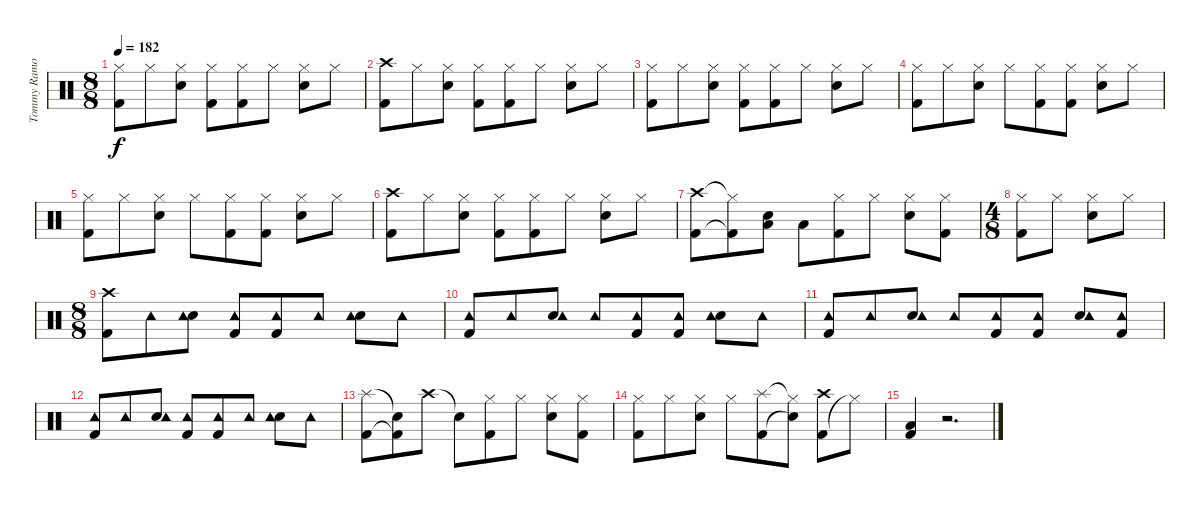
\track ("Tommy Ramone - Drums" "Tommy Ramo") {instrument percussion}
\staff {score}
\articulation defaults
\ts (8 8)
\tempo 182
\clef neutral
\ks c
("Kick (hit) 2" "Hi-Hat (closed)").8{dy f} "Hi-Hat (closed)".8 ("Snare (hit) 2" "Hi-Hat (closed)").8 ("Kick (hit) 2" "Hi-Hat (closed)").8 ("Kick (hit) 2" "Hi-Hat (closed)").8 "Hi-Hat (closed)".8 ("Snare (hit) 2" "Hi-Hat (closed)").8 "Hi-Hat (closed)".8 |
("Kick (hit) 2" "Crash high (hit)").8 "Hi-Hat (closed)".8 ("Snare (hit) 2" "Hi-Hat (closed)").8 ("Kick (hit) 2" "Hi-Hat (closed)").8 ("Kick (hit) 2" "Hi-Hat (closed)").8 "Hi-Hat (closed)".8 ("Snare (hit) 2" "Hi-Hat (closed)").8 "Hi-Hat (closed)".8 |
("Kick (hit) 2" "Hi-Hat (closed)").8 "Hi-Hat (closed)".8 ("Snare (hit) 2" "Hi-Hat (closed)").8 ("Kick (hit) 2" "Hi-Hat (closed)").8 ("Kick (hit) 2" "Hi-Hat (closed)").8 "Hi-Hat (closed)".8 ("Snare (hit) 2" "Hi-Hat (closed)").8 "Hi-Hat (closed)".8 |
("Kick (hit) 2" "Hi-Hat (closed)").8 "Hi-Hat (closed)".8 ("Snare (hit) 2" "Hi-Hat (closed)").8 "Hi-Hat (closed)".8 ("Kick (hit) 2" "Hi-Hat (closed)").8 ("Kick (hit) 2" "Hi-Hat (closed)").8 ("Snare (hit) 2" "Hi-Hat (closed)").8 "Hi-Hat (closed)".8 |
("Kick (hit) 2" "Hi-Hat (closed)").8 "Hi-Hat (closed)".8 ("Snare (hit) 2" "Hi-Hat (closed)").8 "Hi-Hat (closed)".8 ("Kick (hit) 2" "Hi-Hat (closed)").8 ("Kick (hit) 2" "Hi-Hat (closed)").8 ("Snare (hit) 2" "Hi-Hat (closed)").8 "Hi-Hat (closed)".8 |
("Kick (hit) 2" "Crash high (hit)").8 "Hi-Hat (closed)".8 ("Snare (hit) 2" "Hi-Hat (closed)").8 ("Kick (hit) 2" "Hi-Hat (closed)").8 ("Kick (hit) 2" "Hi-Hat (closed)").8 "Hi-Hat (closed)".8 ("Snare (hit) 2" "Hi-Hat (closed)").8 "Hi-Hat (closed)".8 |
("Kick (hit) 2" "Crash high (hit)").8 ("Kick (hit) 2"{t} "Hi-Hat (closed)"{t}).8 ("Snare (hit) 2" "Low Floor Tom (hit)").8 "Low Floor Tom (hit)".8 ("Kick (hit) 2" "Hi-Hat (closed)").8 "Hi-Hat (closed)".8 ("Snare (hit) 2" "Hi-Hat (closed)").8 ("Kick (hit) 2" "Hi-Hat (closed)").8 |
\ts (4 8)
("Kick (hit) 2" "Hi-Hat (closed)").8 "Hi-Hat (closed)".8 ("Snare (hit) 2" "Hi-Hat (closed)").8 "Hi-Hat (closed)".8 |
\ts (8 8)
("Kick (hit) 2" "Crash high (hit)").8 "Tambourine (hit)".8 ("Snare (hit) 2" "Tambourine (hit)").8 ("Kick (hit) 2" "Tambourine (hit)").8 ("Kick (hit) 2" "Tambourine (hit)").8 "Tambourine (hit)".8 ("Snare (hit) 2" "Tambourine (hit)").8 "Tambourine (hit)".8 |
("Kick (hit) 2" "Tambourine (hit)").8 "Tambourine (hit)".8 ("Snare (hit) 2" "Tambourine (hit)").8 "Tambourine (hit)".8 ("Kick (hit) 2" "Tambourine (hit)").8 ("Kick (hit) 2" "Tambourine (hit)").8 ("Snare (hit) 2" "Tambourine (hit)").8 "Tambourine (hit)".8 |
("Kick (hit) 2" "Tambourine (hit)").8 "Tambourine (hit)".8 ("Snare (hit) 2" "Tambourine (hit)").8 "Tambourine (hit)".8 ("Kick (hit) 2" "Tambourine (hit)").8 ("Kick (hit) 2" "Tambourine (hit)").8 ("Snare (hit) 2" "Tambourine (hit)").8 ("Kick (hit) 2" "Tambourine (hit)").8 |
("Kick (hit) 2" "Tambourine (hit)").8 "Tambourine (hit)".8 ("Snare (hit) 2" "Tambourine (hit)").8 ("Kick (hit) 2" "Tambourine (hit)").8 ("Kick (hit) 2" "Tambourine (hit)").8 "Tambourine (hit)".8 ("Snare (hit) 2" "Tambourine (hit)").8 "Tambourine (hit)".8 |
("Kick (hit) 2" "Splash (hit)").8 ("Kick (hit) 2"{t} "Electric Snare (hit)"{t}).8 "Crash high (hit)".8 "Electric Snare (hit)"{t}.8 ("Kick (hit) 2" "Hi-Hat (closed)").8 "Hi-Hat (closed)".8 ("Snare (hit) 2" "Hi-Hat (closed)").8 ("Kick (hit) 2" "Hi-Hat (closed)").8 |
("Kick (hit) 2" "Hi-Hat (closed)").8 "Hi-Hat (closed)".8 ("Snare (hit) 2" "Hi-Hat (closed)").8 "Hi-Hat (closed)".8 ("Kick (hit) 2" "Splash (hit)").8 ("Snare (hit)"{t} "Hi-Hat (closed)"{t}).8 ("Kick (hit) 2" "Crash high (hit)").8 "Hi-Hat (closed)"{t}.8 |
("Kick (hit) 2" "Low Floor Tom (hit)").4 r.2{d}
